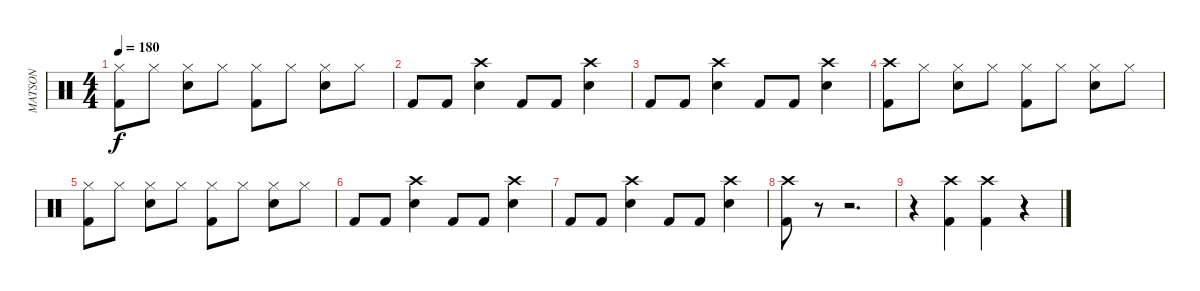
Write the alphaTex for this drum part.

\track ("MATSON" "MATSON") {instrument percussion}
\staff {score}
\articulation defaults
\ts (4 4)
\tempo 180
\clef neutral
\ks c
("Hi-Hat (closed)" "Kick (hit) 2").8{dy f} "Hi-Hat (closed)".8 ("Hi-Hat (closed)" "Snare (hit) 2").8 "Hi-Hat (closed)".8 ("Hi-Hat (closed)" "Kick (hit) 2").8 "Hi-Hat (closed)".8 ("Hi-Hat (closed)" "Snare (hit) 2").8 "Hi-Hat (closed)".8 |
"Kick (hit) 2".8 "Kick (hit) 2".8 ("Crash high (hit)" "Snare (hit) 2").4 "Kick (hit) 2".8 "Kick (hit) 2".8 ("Crash high (hit)" "Snare (hit) 2").4 |
"Kick (hit) 2".8 "Kick (hit) 2".8 ("Crash high (hit)" "Snare (hit) 2").4 "Kick (hit) 2".8 "Kick (hit) 2".8 ("Crash high (hit)" "Snare (hit) 2").4 |
("Crash high (hit)" "Kick (hit) 2").8 "Hi-Hat (closed)".8 ("Hi-Hat (closed)" "Snare (hit) 2").8 "Hi-Hat (closed)".8 ("Hi-Hat (closed)" "Kick (hit) 2").8 "Hi-Hat (closed)".8 ("Hi-Hat (closed)" "Snare (hit) 2").8 "Hi-Hat (closed)".8 |
("Hi-Hat (closed)" "Kick (hit) 2").8 "Hi-Hat (closed)".8 ("Hi-Hat (closed)" "Snare (hit) 2").8 "Hi-Hat (closed)".8 ("Hi-Hat (closed)" "Kick (hit) 2").8 "Hi-Hat (closed)".8 ("Hi-Hat (closed)" "Snare (hit) 2").8 "Hi-Hat (closed)".8 |
"Kick (hit) 2".8 "Kick (hit) 2".8 ("Crash high (hit)" "Snare (hit) 2").4 "Kick (hit) 2".8 "Kick (hit) 2".8 ("Crash high (hit)" "Snare (hit) 2").4 |
"Kick (hit) 2".8 "Kick (hit) 2".8 ("Crash high (hit)" "Snare (hit) 2").4 "Kick (hit) 2".8 "Kick (hit) 2".8 ("Crash high (hit)" "Snare (hit) 2").4 |
("Crash high (hit)" "Kick (hit) 2").8 r.8 r.2{d} |
r.4 ("Crash high (hit)" "Kick (hit) 2").4 ("Crash high (hit)" "Kick (hit) 2").4 r.4
